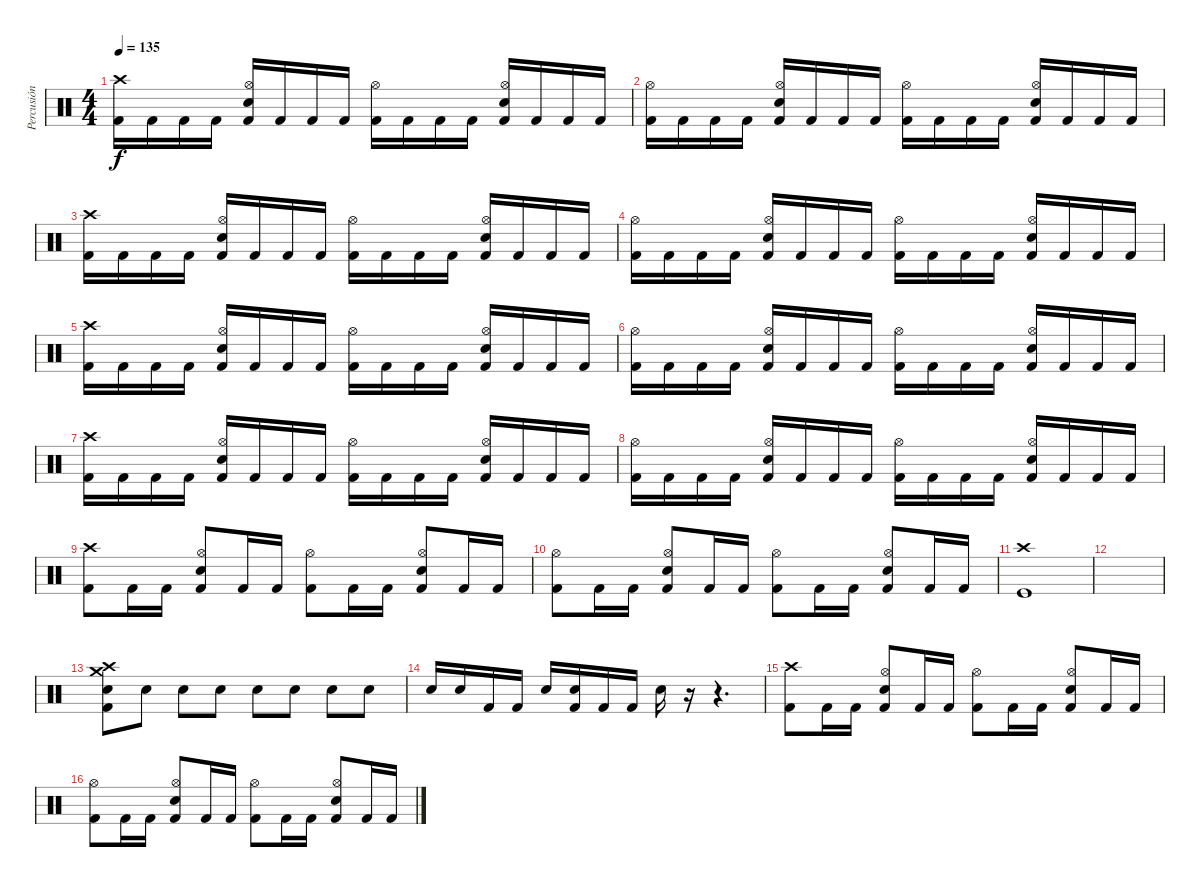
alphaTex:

\track ("Percusión" "Percusión") {instrument percussion}
\staff {score}
\articulation defaults
\ts (4 4)
\tempo 135
\clef neutral
\ks c
("Kick (hit) 2" "Crash high (hit)").16{dy f} "Kick (hit) 2".16 "Kick (hit) 2".16 "Kick (hit) 2".16 ("Kick (hit) 2" "Hi-Hat (open)" "Snare (hit) 2").16 "Kick (hit) 2".16 "Kick (hit) 2".16 "Kick (hit) 2".16 ("Kick (hit) 2" "Hi-Hat (open)").16 "Kick (hit) 2".16 "Kick (hit) 2".16 "Kick (hit) 2".16 ("Kick (hit) 2" "Hi-Hat (open)" "Snare (hit) 2").16 "Kick (hit) 2".16 "Kick (hit) 2".16 "Kick (hit) 2".16 |
("Kick (hit) 2" "Hi-Hat (open)").16 "Kick (hit) 2".16 "Kick (hit) 2".16 "Kick (hit) 2".16 ("Kick (hit) 2" "Hi-Hat (open)" "Snare (hit) 2").16 "Kick (hit) 2".16 "Kick (hit) 2".16 "Kick (hit) 2".16 ("Kick (hit) 2" "Hi-Hat (open)").16 "Kick (hit) 2".16 "Kick (hit) 2".16 "Kick (hit) 2".16 ("Kick (hit) 2" "Hi-Hat (open)" "Snare (hit) 2").16 "Kick (hit) 2".16 "Kick (hit) 2".16 "Kick (hit) 2".16 |
("Kick (hit) 2" "Crash high (hit)").16 "Kick (hit) 2".16 "Kick (hit) 2".16 "Kick (hit) 2".16 ("Kick (hit) 2" "Hi-Hat (open)" "Snare (hit) 2").16 "Kick (hit) 2".16 "Kick (hit) 2".16 "Kick (hit) 2".16 ("Kick (hit) 2" "Hi-Hat (open)").16 "Kick (hit) 2".16 "Kick (hit) 2".16 "Kick (hit) 2".16 ("Kick (hit) 2" "Hi-Hat (open)" "Snare (hit) 2").16 "Kick (hit) 2".16 "Kick (hit) 2".16 "Kick (hit) 2".16 |
("Kick (hit) 2" "Hi-Hat (open)").16 "Kick (hit) 2".16 "Kick (hit) 2".16 "Kick (hit) 2".16 ("Kick (hit) 2" "Hi-Hat (open)" "Snare (hit) 2").16 "Kick (hit) 2".16 "Kick (hit) 2".16 "Kick (hit) 2".16 ("Kick (hit) 2" "Hi-Hat (open)").16 "Kick (hit) 2".16 "Kick (hit) 2".16 "Kick (hit) 2".16 ("Kick (hit) 2" "Hi-Hat (open)" "Snare (hit) 2").16 "Kick (hit) 2".16 "Kick (hit) 2".16 "Kick (hit) 2".16 |
("Kick (hit) 2" "Crash high (hit)").16 "Kick (hit) 2".16 "Kick (hit) 2".16 "Kick (hit) 2".16 ("Kick (hit) 2" "Hi-Hat (open)" "Snare (hit) 2").16 "Kick (hit) 2".16 "Kick (hit) 2".16 "Kick (hit) 2".16 ("Kick (hit) 2" "Hi-Hat (open)").16 "Kick (hit) 2".16 "Kick (hit) 2".16 "Kick (hit) 2".16 ("Kick (hit) 2" "Hi-Hat (open)" "Snare (hit) 2").16 "Kick (hit) 2".16 "Kick (hit) 2".16 "Kick (hit) 2".16 |
("Kick (hit) 2" "Hi-Hat (open)").16 "Kick (hit) 2".16 "Kick (hit) 2".16 "Kick (hit) 2".16 ("Kick (hit) 2" "Hi-Hat (open)" "Snare (hit) 2").16 "Kick (hit) 2".16 "Kick (hit) 2".16 "Kick (hit) 2".16 ("Kick (hit) 2" "Hi-Hat (open)").16 "Kick (hit) 2".16 "Kick (hit) 2".16 "Kick (hit) 2".16 ("Kick (hit) 2" "Hi-Hat (open)" "Snare (hit) 2").16 "Kick (hit) 2".16 "Kick (hit) 2".16 "Kick (hit) 2".16 |
("Kick (hit) 2" "Crash high (hit)").16 "Kick (hit) 2".16 "Kick (hit) 2".16 "Kick (hit) 2".16 ("Kick (hit) 2" "Hi-Hat (open)" "Snare (hit) 2").16 "Kick (hit) 2".16 "Kick (hit) 2".16 "Kick (hit) 2".16 ("Kick (hit) 2" "Hi-Hat (open)").16 "Kick (hit) 2".16 "Kick (hit) 2".16 "Kick (hit) 2".16 ("Kick (hit) 2" "Hi-Hat (open)" "Snare (hit) 2").16 "Kick (hit) 2".16 "Kick (hit) 2".16 "Kick (hit) 2".16 |
("Kick (hit) 2" "Hi-Hat (open)").16 "Kick (hit) 2".16 "Kick (hit) 2".16 "Kick (hit) 2".16 ("Kick (hit) 2" "Hi-Hat (open)" "Snare (hit) 2").16 "Kick (hit) 2".16 "Kick (hit) 2".16 "Kick (hit) 2".16 ("Kick (hit) 2" "Hi-Hat (open)").16 "Kick (hit) 2".16 "Kick (hit) 2".16 "Kick (hit) 2".16 ("Kick (hit) 2" "Hi-Hat (open)" "Snare (hit) 2").16 "Kick (hit) 2".16 "Kick (hit) 2".16 "Kick (hit) 2".16 |
("Kick (hit) 2" "Crash high (hit)").8 "Kick (hit) 2".16 "Kick (hit) 2".16 ("Kick (hit) 2" "Hi-Hat (open)" "Snare (hit) 2").8 "Kick (hit) 2".16 "Kick (hit) 2".16 ("Kick (hit) 2" "Hi-Hat (open)").8 "Kick (hit) 2".16 "Kick (hit) 2".16 ("Kick (hit) 2" "Hi-Hat (open)" "Snare (hit) 2").8 "Kick (hit) 2".16 "Kick (hit) 2".16 |
("Kick (hit) 2" "Hi-Hat (open)").8 "Kick (hit) 2".16 "Kick (hit) 2".16 ("Kick (hit) 2" "Hi-Hat (open)" "Snare (hit) 2").8 "Kick (hit) 2".16 "Kick (hit) 2".16 ("Kick (hit) 2" "Hi-Hat (open)").8 "Kick (hit) 2".16 "Kick (hit) 2".16 ("Kick (hit) 2" "Hi-Hat (open)" "Snare (hit) 2").8 "Kick (hit) 2".16 "Kick (hit) 2".16 |
("Crash high (hit)" "Kick (hit)").1 |
|
("Snare (hit) 2" "Kick (hit) 2" "Crash high (hit)" "Crash medium (hit)").8 "Snare (hit) 2".8 "Snare (hit) 2".8 "Snare (hit) 2".8 "Snare (hit) 2".8 "Snare (hit) 2".8 "Snare (hit) 2".8 "Snare (hit) 2".8 |
"Snare (hit) 2".16 "Snare (hit) 2".16 "Kick (hit) 2".16 "Kick (hit) 2".16 "Snare (hit) 2".16 ("Kick (hit) 2" "Snare (hit) 2").16 "Kick (hit) 2".16 "Kick (hit) 2".16 "Snare (hit) 2".16 r.16 r.4{d} |
("Kick (hit) 2" "Crash high (hit)").8 "Kick (hit) 2".16 "Kick (hit) 2".16 ("Kick (hit) 2" "Hi-Hat (open)" "Snare (hit) 2").8 "Kick (hit) 2".16 "Kick (hit) 2".16 ("Kick (hit) 2" "Hi-Hat (open)").8 "Kick (hit) 2".16 "Kick (hit) 2".16 ("Kick (hit) 2" "Hi-Hat (open)" "Snare (hit) 2").8 "Kick (hit) 2".16 "Kick (hit) 2".16 |
("Kick (hit) 2" "Hi-Hat (open)").8 "Kick (hit) 2".16 "Kick (hit) 2".16 ("Kick (hit) 2" "Hi-Hat (open)" "Snare (hit) 2").8 "Kick (hit) 2".16 "Kick (hit) 2".16 ("Kick (hit) 2" "Hi-Hat (open)").8 "Kick (hit) 2".16 "Kick (hit) 2".16 ("Kick (hit) 2" "Hi-Hat (open)" "Snare (hit) 2").8 "Kick (hit) 2".16 "Kick (hit) 2".16
